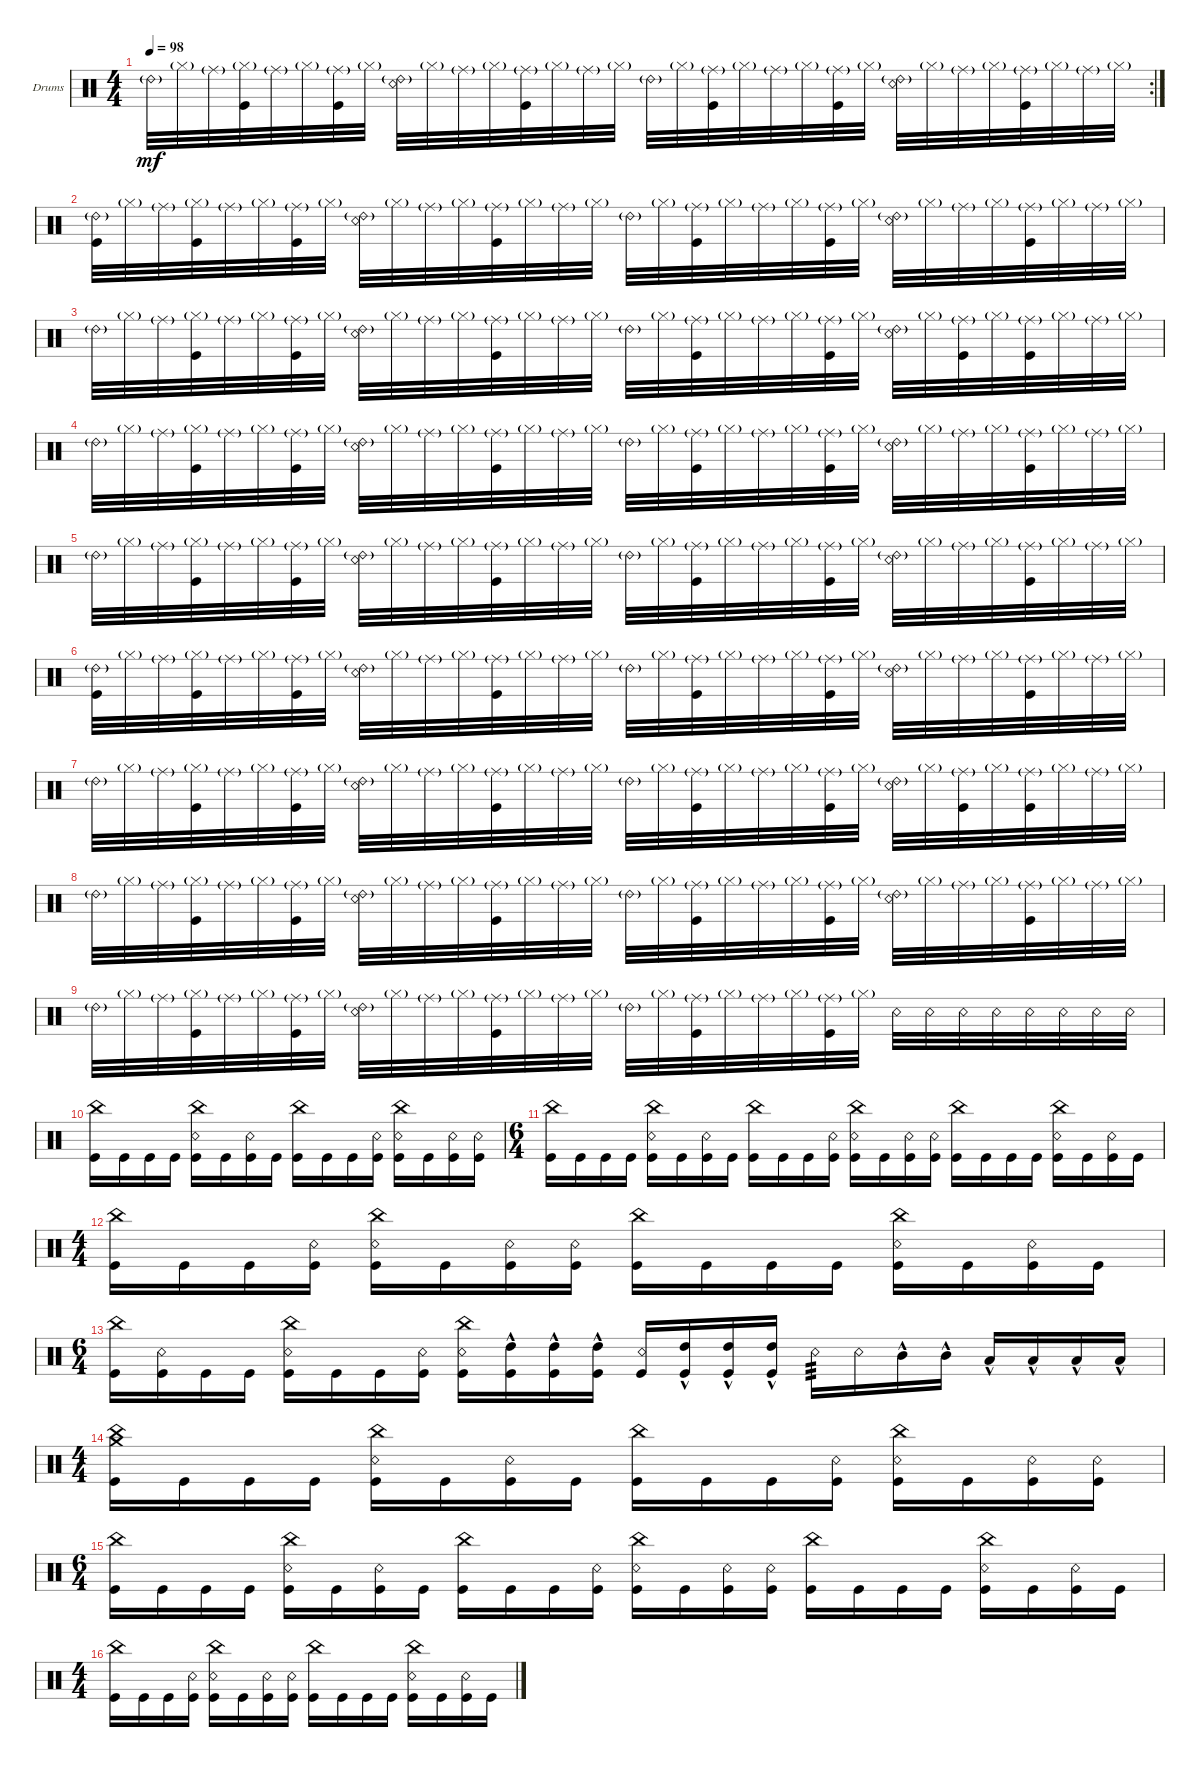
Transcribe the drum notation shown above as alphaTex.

\defaultSystemsLayout 4
\bracketExtendMode groupsimilarinstruments
\multiBarRest
\firstSystemTrackNameOrientation horizontal
\otherSystemsTrackNameOrientation horizontal
\track ("Drumkit" "Drums") {instrument percussion}
\staff {score}
\articulation defaults
\rc 2
\ts (4 4)
\tempo 98
\clef neutral
\ks c "Ride (bell) 2"{g}.32{dy mf} "Hi-Hat (closed)"{g}.32 "Ride (middle)"{g}.32
("Hi-Hat (closed)"{g} "Kick (hit)").32 "Ride (middle)"{g}.32 "Hi-Hat (closed)"{g}.32 ("Ride (middle)"{g} "Kick (hit)").32 "Hi-Hat (closed)"{g}.32 ("Ride (bell) 2"{g} "Snare (rim shot)").32 "Hi-Hat (closed)"{g}.32 "Ride (middle)"{g}.32 "Hi-Hat (closed)"{g}.32 ("Ride (middle)"{g} "Kick (hit)").32 "Hi-Hat (closed)"{g}.32 "Ride (middle)"{g}.32 "Hi-Hat (closed)"{g}.32 "Ride (bell) 2"{g}.32 "Hi-Hat (closed)"{g}.32 ("Ride (middle)"{g} "Kick (hit)").32 "Hi-Hat (closed)"{g}.32 "Ride (middle)"{g}.32 "Hi-Hat (closed)"{g}.32 ("Ride (middle)"{g} "Kick (hit)").32 "Hi-Hat (closed)"{g}.32 ("Ride (bell) 2"{g} "Snare (rim shot)").32 "Hi-Hat (closed)"{g}.32 "Ride (middle)"{g}.32 "Hi-Hat (closed)"{g}.32 ("Ride (middle)"{g} "Kick (hit)").32 "Hi-Hat (closed)"{g}.32 "Ride (middle)"{g}.32 "Hi-Hat (closed)"{g}.32 |
("Ride (bell) 2"{g} "Kick (hit)").32 "Hi-Hat (closed)"{g}.32 "Ride (middle)"{g}.32 ("Hi-Hat (closed)"{g} "Kick (hit)").32 "Ride (middle)"{g}.32 "Hi-Hat (closed)"{g}.32 ("Ride (middle)"{g} "Kick (hit)").32 "Hi-Hat (closed)"{g}.32 ("Ride (bell) 2"{g} "Snare (rim shot)").32 "Hi-Hat (closed)"{g}.32 "Ride (middle)"{g}.32 "Hi-Hat (closed)"{g}.32 ("Ride (middle)"{g} "Kick (hit)").32 "Hi-Hat (closed)"{g}.32 "Ride (middle)"{g}.32 "Hi-Hat (closed)"{g}.32 "Ride (bell) 2"{g}.32 "Hi-Hat (closed)"{g}.32 ("Ride (middle)"{g} "Kick (hit)").32 "Hi-Hat (closed)"{g}.32 "Ride (middle)"{g}.32 "Hi-Hat (closed)"{g}.32 ("Ride (middle)"{g} "Kick (hit)").32 "Hi-Hat (closed)"{g}.32 ("Ride (bell) 2"{g} "Snare (rim shot)").32 "Hi-Hat (closed)"{g}.32 "Ride (middle)"{g}.32 "Hi-Hat (closed)"{g}.32 ("Ride (middle)"{g} "Kick (hit)").32 "Hi-Hat (closed)"{g}.32 "Ride (middle)"{g}.32 "Hi-Hat (closed)"{g}.32 |
"Ride (bell) 2"{g}.32 "Hi-Hat (closed)"{g}.32 "Ride (middle)"{g}.32 ("Hi-Hat (closed)"{g} "Kick (hit)").32 "Ride (middle)"{g}.32 "Hi-Hat (closed)"{g}.32 ("Ride (middle)"{g} "Kick (hit)").32 "Hi-Hat (closed)"{g}.32 ("Ride (bell) 2"{g} "Snare (rim shot)").32 "Hi-Hat (closed)"{g}.32 "Ride (middle)"{g}.32 "Hi-Hat (closed)"{g}.32 ("Ride (middle)"{g} "Kick (hit)").32 "Hi-Hat (closed)"{g}.32 "Ride (middle)"{g}.32 "Hi-Hat (closed)"{g}.32 "Ride (bell) 2"{g}.32 "Hi-Hat (closed)"{g}.32 ("Ride (middle)"{g} "Kick (hit)").32 "Hi-Hat (closed)"{g}.32 "Ride (middle)"{g}.32 "Hi-Hat (closed)"{g}.32 ("Ride (middle)"{g} "Kick (hit)").32 "Hi-Hat (closed)"{g}.32 ("Ride (bell) 2"{g} "Snare (rim shot)").32 "Hi-Hat (closed)"{g}.32 ("Ride (middle)"{g} "Kick (hit)").32 "Hi-Hat (closed)"{g}.32 ("Ride (middle)"{g} "Kick (hit)").32 "Hi-Hat (closed)"{g}.32 "Ride (middle)"{g}.32 "Hi-Hat (closed)"{g}.32 |
"Ride (bell) 2"{g}.32 "Hi-Hat (closed)"{g}.32 "Ride (middle)"{g}.32 ("Hi-Hat (closed)"{g} "Kick (hit)").32 "Ride (middle)"{g}.32 "Hi-Hat (closed)"{g}.32 ("Ride (middle)"{g} "Kick (hit)").32 "Hi-Hat (closed)"{g}.32 ("Ride (bell) 2"{g} "Snare (rim shot)").32 "Hi-Hat (closed)"{g}.32 "Ride (middle)"{g}.32 "Hi-Hat (closed)"{g}.32 ("Ride (middle)"{g} "Kick (hit)").32 "Hi-Hat (closed)"{g}.32 "Ride (middle)"{g}.32 "Hi-Hat (closed)"{g}.32 "Ride (bell) 2"{g}.32 "Hi-Hat (closed)"{g}.32 ("Ride (middle)"{g} "Kick (hit)").32 "Hi-Hat (closed)"{g}.32 "Ride (middle)"{g}.32 "Hi-Hat (closed)"{g}.32 ("Ride (middle)"{g} "Kick (hit)").32 "Hi-Hat (closed)"{g}.32 ("Ride (bell) 2"{g} "Snare (rim shot)").32 "Hi-Hat (closed)"{g}.32 "Ride (middle)"{g}.32 "Hi-Hat (closed)"{g}.32 ("Ride (middle)"{g} "Kick (hit)").32 "Hi-Hat (closed)"{g}.32 "Ride (middle)"{g}.32 "Hi-Hat (closed)"{g}.32 |
"Ride (bell) 2"{g}.32 "Hi-Hat (closed)"{g}.32 "Ride (middle)"{g}.32 ("Hi-Hat (closed)"{g} "Kick (hit)").32 "Ride (middle)"{g}.32 "Hi-Hat (closed)"{g}.32 ("Ride (middle)"{g} "Kick (hit)").32 "Hi-Hat (closed)"{g}.32 ("Ride (bell) 2"{g} "Snare (rim shot)").32 "Hi-Hat (closed)"{g}.32 "Ride (middle)"{g}.32 "Hi-Hat (closed)"{g}.32 ("Ride (middle)"{g} "Kick (hit)").32 "Hi-Hat (closed)"{g}.32 "Ride (middle)"{g}.32 "Hi-Hat (closed)"{g}.32 "Ride (bell) 2"{g}.32 "Hi-Hat (closed)"{g}.32 ("Ride (middle)"{g} "Kick (hit)").32 "Hi-Hat (closed)"{g}.32 "Ride (middle)"{g}.32 "Hi-Hat (closed)"{g}.32 ("Ride (middle)"{g} "Kick (hit)").32 "Hi-Hat (closed)"{g}.32 ("Ride (bell) 2"{g} "Snare (rim shot)").32 "Hi-Hat (closed)"{g}.32 "Ride (middle)"{g}.32 "Hi-Hat (closed)"{g}.32 ("Ride (middle)"{g} "Kick (hit)").32 "Hi-Hat (closed)"{g}.32 "Ride (middle)"{g}.32 "Hi-Hat (closed)"{g}.32 |
("Ride (bell) 2"{g} "Kick (hit)").32 "Hi-Hat (closed)"{g}.32 "Ride (middle)"{g}.32 ("Hi-Hat (closed)"{g} "Kick (hit)").32 "Ride (middle)"{g}.32 "Hi-Hat (closed)"{g}.32 ("Ride (middle)"{g} "Kick (hit)").32 "Hi-Hat (closed)"{g}.32 ("Ride (bell) 2"{g} "Snare (rim shot)").32 "Hi-Hat (closed)"{g}.32 "Ride (middle)"{g}.32 "Hi-Hat (closed)"{g}.32 ("Ride (middle)"{g} "Kick (hit)").32 "Hi-Hat (closed)"{g}.32 "Ride (middle)"{g}.32 "Hi-Hat (closed)"{g}.32 "Ride (bell) 2"{g}.32 "Hi-Hat (closed)"{g}.32 ("Ride (middle)"{g} "Kick (hit)").32 "Hi-Hat (closed)"{g}.32 "Ride (middle)"{g}.32 "Hi-Hat (closed)"{g}.32 ("Ride (middle)"{g} "Kick (hit)").32 "Hi-Hat (closed)"{g}.32 ("Ride (bell) 2"{g} "Snare (rim shot)").32 "Hi-Hat (closed)"{g}.32 "Ride (middle)"{g}.32 "Hi-Hat (closed)"{g}.32 ("Ride (middle)"{g} "Kick (hit)").32 "Hi-Hat (closed)"{g}.32 "Ride (middle)"{g}.32 "Hi-Hat (closed)"{g}.32 |
"Ride (bell) 2"{g}.32 "Hi-Hat (closed)"{g}.32 "Ride (middle)"{g}.32 ("Hi-Hat (closed)"{g} "Kick (hit)").32 "Ride (middle)"{g}.32 "Hi-Hat (closed)"{g}.32 ("Ride (middle)"{g} "Kick (hit)").32 "Hi-Hat (closed)"{g}.32 ("Ride (bell) 2"{g} "Snare (rim shot)").32 "Hi-Hat (closed)"{g}.32 "Ride (middle)"{g}.32 "Hi-Hat (closed)"{g}.32 ("Ride (middle)"{g} "Kick (hit)").32 "Hi-Hat (closed)"{g}.32 "Ride (middle)"{g}.32 "Hi-Hat (closed)"{g}.32 "Ride (bell) 2"{g}.32 "Hi-Hat (closed)"{g}.32 ("Ride (middle)"{g} "Kick (hit)").32 "Hi-Hat (closed)"{g}.32 "Ride (middle)"{g}.32 "Hi-Hat (closed)"{g}.32 ("Ride (middle)"{g} "Kick (hit)").32 "Hi-Hat (closed)"{g}.32 ("Ride (bell) 2"{g} "Snare (rim shot)").32 "Hi-Hat (closed)"{g}.32 ("Ride (middle)"{g} "Kick (hit)").32 "Hi-Hat (closed)"{g}.32 ("Ride (middle)"{g} "Kick (hit)").32 "Hi-Hat (closed)"{g}.32 "Ride (middle)"{g}.32 "Hi-Hat (closed)"{g}.32 |
"Ride (bell) 2"{g}.32 "Hi-Hat (closed)"{g}.32 "Ride (middle)"{g}.32 ("Hi-Hat (closed)"{g} "Kick (hit)").32 "Ride (middle)"{g}.32 "Hi-Hat (closed)"{g}.32 ("Ride (middle)"{g} "Kick (hit)").32 "Hi-Hat (closed)"{g}.32 ("Ride (bell) 2"{g} "Snare (rim shot)").32 "Hi-Hat (closed)"{g}.32 "Ride (middle)"{g}.32 "Hi-Hat (closed)"{g}.32 ("Ride (middle)"{g} "Kick (hit)").32 "Hi-Hat (closed)"{g}.32 "Ride (middle)"{g}.32 "Hi-Hat (closed)"{g}.32 "Ride (bell) 2"{g}.32 "Hi-Hat (closed)"{g}.32 ("Ride (middle)"{g} "Kick (hit)").32 "Hi-Hat (closed)"{g}.32 "Ride (middle)"{g}.32 "Hi-Hat (closed)"{g}.32 ("Ride (middle)"{g} "Kick (hit)").32 "Hi-Hat (closed)"{g}.32 ("Ride (bell) 2"{g} "Snare (rim shot)").32 "Hi-Hat (closed)"{g}.32 "Ride (middle)"{g}.32 "Hi-Hat (closed)"{g}.32 ("Ride (middle)"{g} "Kick (hit)").32 "Hi-Hat (closed)"{g}.32 "Ride (middle)"{g}.32 "Hi-Hat (closed)"{g}.32 |
"Ride (bell) 2"{g}.32 "Hi-Hat (closed)"{g}.32 "Ride (middle)"{g}.32 ("Hi-Hat (closed)"{g} "Kick (hit)").32 "Ride (middle)"{g}.32 "Hi-Hat (closed)"{g}.32 ("Ride (middle)"{g} "Kick (hit)").32 "Hi-Hat (closed)"{g}.32 ("Ride (bell) 2"{g} "Snare (rim shot)").32 "Hi-Hat (closed)"{g}.32 "Ride (middle)"{g}.32 "Hi-Hat (closed)"{g}.32 ("Ride (middle)"{g} "Kick (hit)").32 "Hi-Hat (closed)"{g}.32 "Ride (middle)"{g}.32 "Hi-Hat (closed)"{g}.32 "Ride (bell) 2"{g}.32 "Hi-Hat (closed)"{g}.32 ("Ride (middle)"{g} "Kick (hit)").32 "Hi-Hat (closed)"{g}.32 "Ride (middle)"{g}.32 "Hi-Hat (closed)"{g}.32 ("Ride (middle)"{g} "Kick (hit)").32 "Hi-Hat (closed)"{g}.32 "Snare (rim shot)".32 "Snare (rim shot)".32 "Snare (rim shot)".32 "Snare (rim shot)".32 "Snare (rim shot)".32 "Snare (rim shot)".32 "Snare (rim shot)".32 "Snare (rim shot)".32 |
("Kick (hit)" "China (hit)").16 "Kick (hit)".16 "Kick (hit)".16 "Kick (hit)".16 ("Kick (hit)" "Snare (rim shot)" "China (hit)").16 "Kick (hit)".16 ("Kick (hit)" "Snare (rim shot)").16 "Kick (hit)".16 ("Kick (hit)" "China (hit)").16 "Kick (hit)".16 "Kick (hit)".16 ("Kick (hit)" "Snare (rim shot)").16 ("Kick (hit)" "China (hit)" "Snare (rim shot)").16 "Kick (hit)".16 ("Kick (hit)" "Snare (rim shot)").16 ("Kick (hit)" "Snare (rim shot)").16 |
\ts (6 4)
("Kick (hit)" "China (hit)").16 "Kick (hit)".16 "Kick (hit)".16 "Kick (hit)".16 ("Kick (hit)" "Snare (rim shot)" "China (hit)").16 "Kick (hit)".16 ("Kick (hit)" "Snare (rim shot)").16 "Kick (hit)".16 ("Kick (hit)" "China (hit)").16 "Kick (hit)".16 "Kick (hit)".16 ("Kick (hit)" "Snare (rim shot)").16 ("Kick (hit)" "China (hit)" "Snare (rim shot)").16 "Kick (hit)".16 ("Kick (hit)" "Snare (rim shot)").16 ("Kick (hit)" "Snare (rim shot)").16 ("Kick (hit)" "China (hit)").16 "Kick (hit)".16 "Kick (hit)".16 "Kick (hit)".16 ("Kick (hit)" "Snare (rim shot)" "China (hit)").16 "Kick (hit)".16 ("Kick (hit)" "Snare (rim shot)").16 "Kick (hit)".16 |
\ts (4 4)
("Kick (hit)" "China (hit)").16 "Kick (hit)".16 "Kick (hit)".16 ("Kick (hit)" "Snare (rim shot)").16 ("Kick (hit)" "China (hit)" "Snare (rim shot)").16 "Kick (hit)".16 ("Kick (hit)" "Snare (rim shot)").16 ("Kick (hit)" "Snare (rim shot)").16 ("Kick (hit)" "China (hit)").16 "Kick (hit)".16 "Kick (hit)".16 "Kick (hit)".16 ("Kick (hit)" "Snare (rim shot)" "China (hit)").16 "Kick (hit)".16 ("Kick (hit)" "Snare (rim shot)").16 "Kick (hit)".16 |
\ts (6 4)
("Kick (hit)" "China (hit)").16 ("Kick (hit)" "Snare (rim shot)").16 "Kick (hit)".16 "Kick (hit)".16 ("Kick (hit)" "China (hit)" "Snare (rim shot)").16 "Kick (hit)".16 "Kick (hit)".16 ("Kick (hit)" "Snare (rim shot)").16 ("Kick (hit)" "China (hit)" "Snare (rim shot)").16 ("Kick (hit)" "High Tom (hit)"{hac}).16 ("Kick (hit)" "High Tom (hit)"{hac}).16 ("Kick (hit)" "High Tom (hit)"{hac}).16 ("Kick (hit)" "Snare (rim shot)").16 ("Kick (hit)" "High Tom (hit)"{hac}).16 ("Kick (hit)" "High Tom (hit)"{hac}).16 ("Kick (hit)" "High Tom (hit)"{hac}).16 "Snare (rim shot)".16{tp 3} "Snare (rim shot)".16 "Mid Tom (hit)"{hac}.16 "Mid Tom (hit)"{hac}.16 "Low Tom (hit)"{hac}.16 "Low Tom (hit)"{hac}.16 "Low Tom (hit)"{hac}.16 "Low Tom (hit)"{hac}.16 |
\ts (4 4)
("Kick (hit)" "China (hit)" "Crash medium (hit)").16 "Kick (hit)".16 "Kick (hit)".16 "Kick (hit)".16 ("Kick (hit)" "Snare (rim shot)" "China (hit)").16 "Kick (hit)".16 ("Kick (hit)" "Snare (rim shot)").16 "Kick (hit)".16 ("Kick (hit)" "China (hit)").16 "Kick (hit)".16 "Kick (hit)".16 ("Kick (hit)" "Snare (rim shot)").16 ("Kick (hit)" "China (hit)" "Snare (rim shot)").16 "Kick (hit)".16 ("Kick (hit)" "Snare (rim shot)").16 ("Kick (hit)" "Snare (rim shot)").16 |
\ts (6 4)
("Kick (hit)" "China (hit)").16 "Kick (hit)".16 "Kick (hit)".16 "Kick (hit)".16 ("Kick (hit)" "Snare (rim shot)" "China (hit)").16 "Kick (hit)".16 ("Kick (hit)" "Snare (rim shot)").16 "Kick (hit)".16 ("Kick (hit)" "China (hit)").16 "Kick (hit)".16 "Kick (hit)".16 ("Kick (hit)" "Snare (rim shot)").16 ("Kick (hit)" "China (hit)" "Snare (rim shot)").16 "Kick (hit)".16 ("Kick (hit)" "Snare (rim shot)").16 ("Kick (hit)" "Snare (rim shot)").16 ("Kick (hit)" "China (hit)").16 "Kick (hit)".16 "Kick (hit)".16 "Kick (hit)".16 ("Kick (hit)" "Snare (rim shot)" "China (hit)").16 "Kick (hit)".16 ("Kick (hit)" "Snare (rim shot)").16 "Kick (hit)".16 |
\ts (4 4)
("Kick (hit)" "China (hit)").16 "Kick (hit)".16 "Kick (hit)".16 ("Kick (hit)" "Snare (rim shot)").16 ("Kick (hit)" "China (hit)" "Snare (rim shot)").16 "Kick (hit)".16 ("Kick (hit)" "Snare (rim shot)").16 ("Kick (hit)" "Snare (rim shot)").16 ("Kick (hit)" "China (hit)").16 "Kick (hit)".16 "Kick (hit)".16 "Kick (hit)".16 ("Kick (hit)" "Snare (rim shot)" "China (hit)").16 "Kick (hit)".16 ("Kick (hit)" "Snare (rim shot)").16 "Kick (hit)".16
